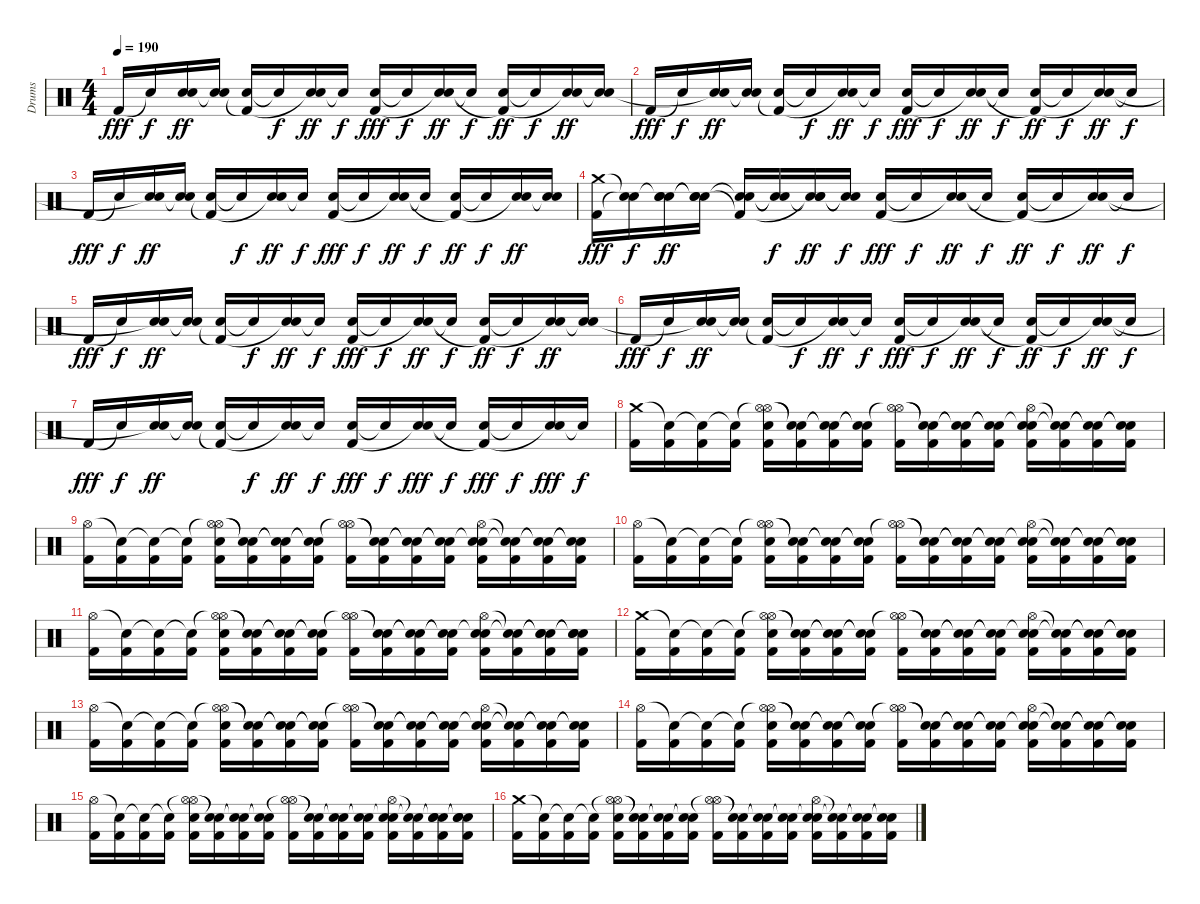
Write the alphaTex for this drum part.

\track ("Drums" "Drums") {instrument percussion}
\staff {score}
\articulation defaults
\ts (4 4)
\tempo 190
\clef neutral
\ks c "Kick (hit) 2".16{dy fff} "Snare (hit)"{t}.16{dy f}
("Electric Snare (hit)" "Snare (hit)"{t}).16{dy ff} ("Electric Snare (hit)" "Snare (hit)"{t}).16 ("Electric Snare (hit)" "Kick (hit) 2"{t}).16 "Snare (hit)"{t}.16{dy f} ("Electric Snare (hit)" "Snare (hit)"{t}).16{dy ff} "Snare (hit)"{t}.16{dy f} ("Electric Snare (hit)" "Kick (hit) 2").16{dy fff} "Snare (hit)"{t}.16{dy f} ("Electric Snare (hit)" "Snare (hit)"{t}).16{dy ff} "Snare (hit)"{t}.16{dy f} ("Electric Snare (hit)" "Kick (hit) 2"{t}).16{dy ff} "Snare (hit)"{t}.16{dy f} ("Electric Snare (hit)" "Snare (hit)"{t}).16{dy ff} ("Electric Snare (hit)" "Snare (hit)"{t}).16 |
"Kick (hit) 2".16{dy fff} "Snare (hit)"{t}.16{dy f} ("Electric Snare (hit)" "Snare (hit)"{t}).16{dy ff} ("Electric Snare (hit)" "Snare (hit)"{t}).16 ("Electric Snare (hit)" "Kick (hit) 2"{t}).16 "Snare (hit)"{t}.16{dy f} ("Electric Snare (hit)" "Snare (hit)"{t}).16{dy ff} "Snare (hit)"{t}.16{dy f} ("Electric Snare (hit)" "Kick (hit) 2").16{dy fff} "Snare (hit)"{t}.16{dy f} ("Electric Snare (hit)" "Snare (hit)"{t}).16{dy ff} "Snare (hit)"{t}.16{dy f} ("Electric Snare (hit)" "Kick (hit) 2"{t}).16{dy ff} "Snare (hit)"{t}.16{dy f} ("Electric Snare (hit)" "Snare (hit)"{t}).16{dy ff} "Snare (hit)"{t}.16{dy f} |
"Kick (hit) 2".16{dy fff} "Snare (hit)"{t}.16{dy f} ("Electric Snare (hit)" "Snare (hit)"{t}).16{dy ff} ("Electric Snare (hit)" "Snare (hit)"{t}).16 ("Electric Snare (hit)" "Kick (hit) 2"{t}).16 "Snare (hit)"{t}.16{dy f} ("Electric Snare (hit)" "Snare (hit)"{t}).16{dy ff} "Snare (hit)"{t}.16{dy f} ("Electric Snare (hit)" "Kick (hit) 2").16{dy fff} "Snare (hit)"{t}.16{dy f} ("Electric Snare (hit)" "Snare (hit)"{t}).16{dy ff} "Snare (hit)"{t}.16{dy f} ("Electric Snare (hit)" "Kick (hit) 2"{t}).16{dy ff} "Snare (hit)"{t}.16{dy f} ("Electric Snare (hit)" "Snare (hit)"{t}).16{dy ff} ("Electric Snare (hit)" "Snare (hit)"{t}).16 |
("Crash medium (hit)" "Kick (hit) 2").16{dy fff} ("Snare (hit)"{t} "Snare (hit)"{t}).16{dy f} ("Snare (hit)"{t} "Electric Snare (hit)" "Snare (hit)").16{dy ff} ("Snare (hit)"{t} "Electric Snare (hit)" "Snare (hit)"{t}).16 ("Snare (hit)"{t} "Electric Snare (hit)" "Kick (hit) 2"{t}).16 ("Snare (hit)"{t} "Snare (hit)"{t}).16{dy f} ("Snare (hit)"{t} "Electric Snare (hit)" "Snare (hit)"{t}).16{dy ff} ("Snare (hit)"{t} "Snare (hit)"{t}).16{dy f} ("Electric Snare (hit)" "Kick (hit) 2").16{dy fff} "Snare (hit)"{t}.16{dy f} ("Electric Snare (hit)" "Snare (hit)"{t}).16{dy ff} "Snare (hit)"{t}.16{dy f} ("Electric Snare (hit)" "Kick (hit) 2"{t}).16{dy ff} "Snare (hit)"{t}.16{dy f} ("Electric Snare (hit)" "Snare (hit)"{t}).16{dy ff} "Snare (hit)"{t}.16{dy f} |
"Kick (hit) 2".16{dy fff} "Snare (hit)"{t}.16{dy f} ("Electric Snare (hit)" "Snare (hit)"{t}).16{dy ff} ("Electric Snare (hit)" "Snare (hit)"{t}).16 ("Electric Snare (hit)" "Kick (hit) 2"{t}).16 "Snare (hit)"{t}.16{dy f} ("Electric Snare (hit)" "Snare (hit)"{t}).16{dy ff} "Snare (hit)"{t}.16{dy f} ("Electric Snare (hit)" "Kick (hit) 2").16{dy fff} "Snare (hit)"{t}.16{dy f} ("Electric Snare (hit)" "Snare (hit)"{t}).16{dy ff} "Snare (hit)"{t}.16{dy f} ("Electric Snare (hit)" "Kick (hit) 2"{t}).16{dy ff} "Snare (hit)"{t}.16{dy f} ("Electric Snare (hit)" "Snare (hit)"{t}).16{dy ff} ("Electric Snare (hit)" "Snare (hit)"{t}).16 |
"Kick (hit) 2".16{dy fff} "Snare (hit)"{t}.16{dy f} ("Electric Snare (hit)" "Snare (hit)"{t}).16{dy ff} ("Electric Snare (hit)" "Snare (hit)"{t}).16 ("Electric Snare (hit)" "Kick (hit) 2"{t}).16 "Snare (hit)"{t}.16{dy f} ("Electric Snare (hit)" "Snare (hit)"{t}).16{dy ff} "Snare (hit)"{t}.16{dy f} ("Electric Snare (hit)" "Kick (hit) 2").16{dy fff} "Snare (hit)"{t}.16{dy f} ("Electric Snare (hit)" "Snare (hit)"{t}).16{dy ff} "Snare (hit)"{t}.16{dy f} ("Electric Snare (hit)" "Kick (hit) 2"{t}).16{dy ff} "Snare (hit)"{t}.16{dy f} ("Electric Snare (hit)" "Snare (hit)"{t}).16{dy ff} "Snare (hit)"{t}.16{dy f} |
"Kick (hit) 2".16{dy fff} "Snare (hit)"{t}.16{dy f} ("Electric Snare (hit)" "Snare (hit)"{t}).16{dy ff} ("Electric Snare (hit)" "Snare (hit)"{t}).16 ("Electric Snare (hit)" "Kick (hit) 2"{t}).16 "Snare (hit)"{t}.16{dy f} ("Electric Snare (hit)" "Snare (hit)"{t}).16{dy ff} "Snare (hit)"{t}.16{dy f} ("Electric Snare (hit)" "Kick (hit) 2").16{dy fff} "Snare (hit)"{t}.16{dy f} ("Electric Snare (hit)" "Snare (hit)"{t}).16{dy fff} "Snare (hit)"{t}.16{dy f} ("Electric Snare (hit)" "Kick (hit) 2"{t}).16{dy fff} "Snare (hit)"{t}.16{dy f} ("Electric Snare (hit)" "Snare (hit)"{t}).16{dy fff} "Snare (hit)"{t}.16{dy f} |
("Crash medium (hit)" "Kick (hit) 2").16 ("Snare (hit)"{t} "Kick (hit) 2").16 ("Snare (hit)"{t} "Kick (hit) 2").16 ("Snare (hit)"{t} "Kick (hit) 2").16 ("Hi-Hat (open)"{t} "Hi-Hat (open)" "Electric Snare (hit)" "Kick (hit) 2").16 ("Snare (hit)"{t} "Snare (hit)"{t} "Kick (hit) 2").16 ("Snare (hit)"{t} "Snare (hit)"{t} "Kick (hit) 2").16 ("Snare (hit)"{t} "Snare (hit)"{t} "Kick (hit) 2").16 ("Hi-Hat (open)" "Hi-Hat (open)"{t} "Kick (hit) 2").16 ("Snare (hit)"{t} "Snare (hit)"{t} "Kick (hit) 2").16 ("Snare (hit)"{t} "Snare (hit)"{t} "Kick (hit) 2").16 ("Snare (hit)"{t} "Snare (hit)"{t} "Kick (hit) 2").16 ("Snare (hit)"{t} "Hi-Hat (open)" "Electric Snare (hit)" "Kick (hit) 2").16 ("Snare (hit)"{t} "Snare (hit)"{t} "Kick (hit) 2").16 ("Snare (hit)"{t} "Snare (hit)"{t} "Kick (hit) 2").16 ("Snare (hit)"{t} "Snare (hit)"{t} "Kick (hit) 2").16 |
("Hi-Hat (open)" "Kick (hit) 2").16 ("Snare (hit)"{t} "Kick (hit) 2").16 ("Snare (hit)"{t} "Kick (hit) 2").16 ("Snare (hit)"{t} "Kick (hit) 2").16 ("Hi-Hat (open)"{t} "Hi-Hat (open)" "Electric Snare (hit)" "Kick (hit) 2").16 ("Snare (hit)"{t} "Snare (hit)"{t} "Kick (hit) 2").16 ("Snare (hit)"{t} "Snare (hit)"{t} "Kick (hit) 2").16 ("Snare (hit)"{t} "Snare (hit)"{t} "Kick (hit) 2").16 ("Hi-Hat (open)" "Hi-Hat (open)"{t} "Kick (hit) 2").16 ("Snare (hit)"{t} "Snare (hit)"{t} "Kick (hit) 2").16 ("Snare (hit)"{t} "Snare (hit)"{t} "Kick (hit) 2").16 ("Snare (hit)"{t} "Snare (hit)"{t} "Kick (hit) 2").16 ("Snare (hit)"{t} "Hi-Hat (open)" "Electric Snare (hit)" "Kick (hit) 2").16 ("Snare (hit)"{t} "Snare (hit)"{t} "Kick (hit) 2").16 ("Snare (hit)"{t} "Snare (hit)"{t} "Kick (hit) 2").16 ("Snare (hit)"{t} "Snare (hit)"{t} "Kick (hit) 2").16 |
("Hi-Hat (open)" "Kick (hit) 2").16 ("Snare (hit)"{t} "Kick (hit) 2").16 ("Snare (hit)"{t} "Kick (hit) 2").16 ("Snare (hit)"{t} "Kick (hit) 2").16 ("Hi-Hat (open)"{t} "Hi-Hat (open)" "Electric Snare (hit)" "Kick (hit) 2").16 ("Snare (hit)"{t} "Snare (hit)"{t} "Kick (hit) 2").16 ("Snare (hit)"{t} "Snare (hit)"{t} "Kick (hit) 2").16 ("Snare (hit)"{t} "Snare (hit)"{t} "Kick (hit) 2").16 ("Hi-Hat (open)" "Hi-Hat (open)"{t} "Kick (hit) 2").16 ("Snare (hit)"{t} "Snare (hit)"{t} "Kick (hit) 2").16 ("Snare (hit)"{t} "Snare (hit)"{t} "Kick (hit) 2").16 ("Snare (hit)"{t} "Snare (hit)"{t} "Kick (hit) 2").16 ("Snare (hit)"{t} "Hi-Hat (open)" "Electric Snare (hit)" "Kick (hit) 2").16 ("Snare (hit)"{t} "Snare (hit)"{t} "Kick (hit) 2").16 ("Snare (hit)"{t} "Snare (hit)"{t} "Kick (hit) 2").16 ("Snare (hit)"{t} "Snare (hit)"{t} "Kick (hit) 2").16 |
("Hi-Hat (open)" "Kick (hit) 2").16 ("Snare (hit)"{t} "Kick (hit) 2").16 ("Snare (hit)"{t} "Kick (hit) 2").16 ("Snare (hit)"{t} "Kick (hit) 2").16 ("Hi-Hat (open)"{t} "Hi-Hat (open)" "Electric Snare (hit)" "Kick (hit) 2").16 ("Snare (hit)"{t} "Snare (hit)"{t} "Kick (hit) 2").16 ("Snare (hit)"{t} "Snare (hit)"{t} "Kick (hit) 2").16 ("Snare (hit)"{t} "Snare (hit)"{t} "Kick (hit) 2").16 ("Hi-Hat (open)" "Hi-Hat (open)"{t} "Kick (hit) 2").16 ("Snare (hit)"{t} "Snare (hit)"{t} "Kick (hit) 2").16 ("Snare (hit)"{t} "Snare (hit)"{t} "Kick (hit) 2").16 ("Snare (hit)"{t} "Snare (hit)"{t} "Kick (hit) 2").16 ("Snare (hit)"{t} "Hi-Hat (open)" "Electric Snare (hit)" "Kick (hit) 2").16 ("Snare (hit)"{t} "Snare (hit)"{t} "Kick (hit) 2").16 ("Snare (hit)"{t} "Snare (hit)"{t} "Electric Snare (hit)" "Kick (hit) 2").16 ("Snare (hit)"{t} "Snare (hit)"{t} "Electric Snare (hit)" "Kick (hit) 2").16 |
("Crash medium (hit)" "Kick (hit) 2").16 ("Snare (hit)"{t} "Kick (hit) 2").16 ("Snare (hit)"{t} "Kick (hit) 2").16 ("Snare (hit)"{t} "Kick (hit) 2").16 ("Hi-Hat (open)"{t} "Hi-Hat (open)" "Electric Snare (hit)" "Kick (hit) 2").16 ("Snare (hit)"{t} "Snare (hit)"{t} "Kick (hit) 2").16 ("Snare (hit)"{t} "Snare (hit)"{t} "Kick (hit) 2").16 ("Snare (hit)"{t} "Snare (hit)"{t} "Kick (hit) 2").16 ("Hi-Hat (open)" "Hi-Hat (open)"{t} "Kick (hit) 2").16 ("Snare (hit)"{t} "Snare (hit)"{t} "Kick (hit) 2").16 ("Snare (hit)"{t} "Snare (hit)"{t} "Kick (hit) 2").16 ("Snare (hit)"{t} "Snare (hit)"{t} "Kick (hit) 2").16 ("Snare (hit)"{t} "Hi-Hat (open)" "Electric Snare (hit)" "Kick (hit) 2").16 ("Snare (hit)"{t} "Snare (hit)"{t} "Kick (hit) 2").16 ("Snare (hit)"{t} "Snare (hit)"{t} "Kick (hit) 2").16 ("Snare (hit)"{t} "Snare (hit)"{t} "Kick (hit) 2").16 |
("Hi-Hat (open)" "Kick (hit) 2").16 ("Snare (hit)"{t} "Kick (hit) 2").16 ("Snare (hit)"{t} "Kick (hit) 2").16 ("Snare (hit)"{t} "Kick (hit) 2").16 ("Hi-Hat (open)"{t} "Hi-Hat (open)" "Electric Snare (hit)" "Kick (hit) 2").16 ("Snare (hit)"{t} "Snare (hit)"{t} "Kick (hit) 2").16 ("Snare (hit)"{t} "Snare (hit)"{t} "Kick (hit) 2").16 ("Snare (hit)"{t} "Snare (hit)"{t} "Kick (hit) 2").16 ("Hi-Hat (open)" "Hi-Hat (open)"{t} "Kick (hit) 2").16 ("Snare (hit)"{t} "Snare (hit)"{t} "Kick (hit) 2").16 ("Snare (hit)"{t} "Snare (hit)"{t} "Kick (hit) 2").16 ("Snare (hit)"{t} "Snare (hit)"{t} "Kick (hit) 2").16 ("Snare (hit)"{t} "Hi-Hat (open)" "Electric Snare (hit)" "Kick (hit) 2").16 ("Snare (hit)"{t} "Snare (hit)"{t} "Kick (hit) 2").16 ("Snare (hit)"{t} "Snare (hit)"{t} "Kick (hit) 2").16 ("Snare (hit)"{t} "Snare (hit)"{t} "Kick (hit) 2").16 |
("Hi-Hat (open)" "Kick (hit) 2").16 ("Snare (hit)"{t} "Kick (hit) 2").16 ("Snare (hit)"{t} "Kick (hit) 2").16 ("Snare (hit)"{t} "Kick (hit) 2").16 ("Hi-Hat (open)"{t} "Hi-Hat (open)" "Electric Snare (hit)" "Kick (hit) 2").16 ("Snare (hit)"{t} "Snare (hit)"{t} "Kick (hit) 2").16 ("Snare (hit)"{t} "Snare (hit)"{t} "Kick (hit) 2").16 ("Snare (hit)"{t} "Snare (hit)"{t} "Kick (hit) 2").16 ("Hi-Hat (open)" "Hi-Hat (open)"{t} "Kick (hit) 2").16 ("Snare (hit)"{t} "Snare (hit)"{t} "Kick (hit) 2").16 ("Snare (hit)"{t} "Snare (hit)"{t} "Kick (hit) 2").16 ("Snare (hit)"{t} "Snare (hit)"{t} "Kick (hit) 2").16 ("Snare (hit)"{t} "Hi-Hat (open)" "Electric Snare (hit)" "Kick (hit) 2").16 ("Snare (hit)"{t} "Snare (hit)"{t} "Kick (hit) 2").16 ("Snare (hit)"{t} "Snare (hit)"{t} "Kick (hit) 2").16 ("Snare (hit)"{t} "Snare (hit)"{t} "Kick (hit) 2").16 |
("Hi-Hat (open)" "Kick (hit) 2").16 ("Snare (hit)"{t} "Kick (hit) 2").16 ("Snare (hit)"{t} "Kick (hit) 2").16 ("Snare (hit)"{t} "Kick (hit) 2").16 ("Hi-Hat (open)"{t} "Hi-Hat (open)" "Electric Snare (hit)" "Kick (hit) 2").16 ("Snare (hit)"{t} "Snare (hit)"{t} "Kick (hit) 2").16 ("Snare (hit)"{t} "Snare (hit)"{t} "Kick (hit) 2").16 ("Snare (hit)"{t} "Snare (hit)"{t} "Kick (hit) 2").16 ("Hi-Hat (open)" "Hi-Hat (open)"{t} "Kick (hit) 2").16 ("Snare (hit)"{t} "Snare (hit)"{t} "Kick (hit) 2").16 ("Snare (hit)"{t} "Snare (hit)"{t} "Kick (hit) 2").16 ("Snare (hit)"{t} "Snare (hit)"{t} "Kick (hit) 2").16 ("Snare (hit)"{t} "Hi-Hat (open)" "Electric Snare (hit)" "Kick (hit) 2").16 ("Snare (hit)"{t} "Snare (hit)"{t} "Kick (hit) 2").16 ("Snare (hit)"{t} "Snare (hit)"{t} "Electric Snare (hit)" "Kick (hit) 2").16 ("Snare (hit)"{t} "Snare (hit)"{t} "Electric Snare (hit)" "Kick (hit) 2").16 |
("Crash medium (hit)" "Kick (hit) 2").16 ("Snare (hit)"{t} "Kick (hit) 2").16 ("Snare (hit)"{t} "Kick (hit) 2").16 ("Snare (hit)"{t} "Kick (hit) 2").16 ("Hi-Hat (open)"{t} "Hi-Hat (open)" "Electric Snare (hit)" "Kick (hit) 2").16 ("Snare (hit)"{t} "Snare (hit)"{t} "Kick (hit) 2").16 ("Snare (hit)"{t} "Snare (hit)"{t} "Kick (hit) 2").16 ("Snare (hit)"{t} "Snare (hit)"{t} "Kick (hit) 2").16 ("Hi-Hat (open)" "Hi-Hat (open)"{t} "Kick (hit) 2").16 ("Snare (hit)"{t} "Snare (hit)"{t} "Kick (hit) 2").16 ("Snare (hit)"{t} "Snare (hit)"{t} "Kick (hit) 2").16 ("Snare (hit)"{t} "Snare (hit)"{t} "Kick (hit) 2").16 ("Snare (hit)"{t} "Hi-Hat (open)" "Electric Snare (hit)" "Kick (hit) 2").16 ("Snare (hit)"{t} "Snare (hit)"{t} "Kick (hit) 2").16 ("Snare (hit)"{t} "Snare (hit)"{t} "Kick (hit) 2").16 ("Snare (hit)"{t} "Snare (hit)"{t} "Kick (hit) 2").16
